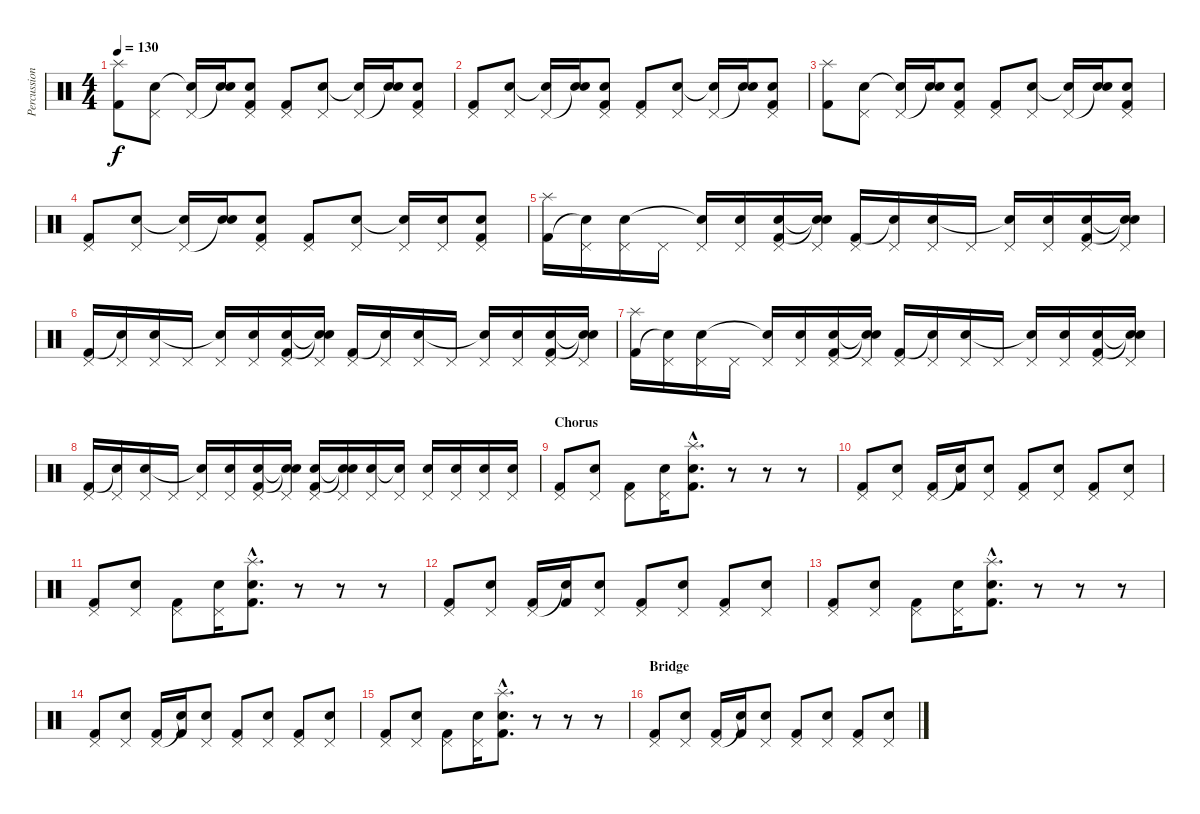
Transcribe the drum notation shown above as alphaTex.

\track ("Percussion" "Percussion") {instrument percussion}
\staff {score}
\articulation defaults
\ts (4 4)
\tempo 130
\clef neutral
\ks c
("Splash (hit)" "Kick (hit) 2").8{dy f} ("Pedal Hi-Hat (hit)" "Electric Snare (hit)").8 ("Pedal Hi-Hat (hit)" "Snare (hit)"{t}).16 ("Snare (hit)"{t} "Electric Snare (hit)").16 ("Pedal Hi-Hat (hit)" "Electric Snare (hit)" "Kick (hit) 2").8 ("Pedal Hi-Hat (hit)" "Kick (hit) 2").8 ("Pedal Hi-Hat (hit)" "Electric Snare (hit)").8 ("Pedal Hi-Hat (hit)" "Snare (hit)"{t}).16 ("Snare (hit)"{t} "Electric Snare (hit)").16 ("Pedal Hi-Hat (hit)" "Electric Snare (hit)" "Kick (hit) 2").8 |
("Pedal Hi-Hat (hit)" "Kick (hit) 2").8 ("Pedal Hi-Hat (hit)" "Electric Snare (hit)").8 ("Pedal Hi-Hat (hit)" "Snare (hit)"{t}).16 ("Snare (hit)"{t} "Electric Snare (hit)").16 ("Pedal Hi-Hat (hit)" "Electric Snare (hit)" "Kick (hit) 2").8 ("Pedal Hi-Hat (hit)" "Kick (hit) 2").8 ("Pedal Hi-Hat (hit)" "Electric Snare (hit)").8 ("Pedal Hi-Hat (hit)" "Snare (hit)"{t}).16 ("Snare (hit)"{t} "Electric Snare (hit)").16 ("Pedal Hi-Hat (hit)" "Electric Snare (hit)" "Kick (hit) 2").8 |
("Splash (hit)" "Kick (hit) 2").8 ("Pedal Hi-Hat (hit)" "Electric Snare (hit)").8 ("Pedal Hi-Hat (hit)" "Snare (hit)"{t}).16 ("Snare (hit)"{t} "Electric Snare (hit)").16 ("Pedal Hi-Hat (hit)" "Electric Snare (hit)" "Kick (hit) 2").8 ("Pedal Hi-Hat (hit)" "Kick (hit) 2").8 ("Pedal Hi-Hat (hit)" "Electric Snare (hit)").8 ("Pedal Hi-Hat (hit)" "Snare (hit)"{t}).16 ("Snare (hit)"{t} "Electric Snare (hit)").16 ("Pedal Hi-Hat (hit)" "Electric Snare (hit)" "Kick (hit) 2").8 |
("Pedal Hi-Hat (hit)" "Kick (hit) 2").8 ("Pedal Hi-Hat (hit)" "Electric Snare (hit)").8 ("Pedal Hi-Hat (hit)" "Snare (hit)"{t}).16 ("Snare (hit)"{t} "Electric Snare (hit)").16 ("Pedal Hi-Hat (hit)" "Electric Snare (hit)" "Kick (hit) 2").8 ("Pedal Hi-Hat (hit)" "Kick (hit) 2").8 ("Pedal Hi-Hat (hit)" "Electric Snare (hit)").8 ("Pedal Hi-Hat (hit)" "Snare (hit)"{t}).16 ("Pedal Hi-Hat (hit)" "Electric Snare (hit)").16 ("Pedal Hi-Hat (hit)" "Electric Snare (hit)" "Kick (hit) 2").8 |
("Splash (hit)" "Kick (hit) 2").16 ("Pedal Hi-Hat (hit)" "Snare (hit)"{t}).16 ("Pedal Hi-Hat (hit)" "Electric Snare (hit)").16 "Pedal Hi-Hat (hit)".16 ("Pedal Hi-Hat (hit)" "Snare (hit)"{t}).16 ("Pedal Hi-Hat (hit)" "Electric Snare (hit)").16 ("Pedal Hi-Hat (hit)" "Electric Snare (hit)" "Kick (hit) 2").16 ("Pedal Hi-Hat (hit)" "Snare (hit)"{t} "Snare (hit)"{t}).16 ("Pedal Hi-Hat (hit)" "Kick (hit) 2").16 ("Pedal Hi-Hat (hit)" "Snare (hit)"{t}).16 ("Pedal Hi-Hat (hit)" "Electric Snare (hit)").16 "Pedal Hi-Hat (hit)".16 ("Pedal Hi-Hat (hit)" "Snare (hit)"{t}).16 ("Pedal Hi-Hat (hit)" "Electric Snare (hit)").16 ("Pedal Hi-Hat (hit)" "Electric Snare (hit)" "Kick (hit) 2").16 ("Pedal Hi-Hat (hit)" "Snare (hit)"{t} "Snare (hit)"{t}).16 |
("Pedal Hi-Hat (hit)" "Kick (hit) 2").16 ("Pedal Hi-Hat (hit)" "Snare (hit)"{t}).16 ("Pedal Hi-Hat (hit)" "Electric Snare (hit)").16 "Pedal Hi-Hat (hit)".16 ("Pedal Hi-Hat (hit)" "Snare (hit)"{t}).16 ("Pedal Hi-Hat (hit)" "Electric Snare (hit)").16 ("Pedal Hi-Hat (hit)" "Electric Snare (hit)" "Kick (hit) 2").16 ("Pedal Hi-Hat (hit)" "Snare (hit)"{t} "Snare (hit)"{t}).16 ("Pedal Hi-Hat (hit)" "Kick (hit) 2").16 ("Pedal Hi-Hat (hit)" "Snare (hit)"{t}).16 ("Pedal Hi-Hat (hit)" "Electric Snare (hit)").16 "Pedal Hi-Hat (hit)".16 ("Pedal Hi-Hat (hit)" "Snare (hit)"{t}).16 ("Pedal Hi-Hat (hit)" "Electric Snare (hit)").16 ("Pedal Hi-Hat (hit)" "Electric Snare (hit)" "Kick (hit) 2").16 ("Pedal Hi-Hat (hit)" "Snare (hit)"{t} "Snare (hit)"{t}).16 |
("Splash (hit)" "Kick (hit) 2").16 ("Pedal Hi-Hat (hit)" "Snare (hit)"{t}).16 ("Pedal Hi-Hat (hit)" "Electric Snare (hit)").16 "Pedal Hi-Hat (hit)".16 ("Pedal Hi-Hat (hit)" "Snare (hit)"{t}).16 ("Pedal Hi-Hat (hit)" "Electric Snare (hit)").16 ("Pedal Hi-Hat (hit)" "Electric Snare (hit)" "Kick (hit) 2").16 ("Pedal Hi-Hat (hit)" "Snare (hit)"{t} "Snare (hit)"{t}).16 ("Pedal Hi-Hat (hit)" "Kick (hit) 2").16 ("Pedal Hi-Hat (hit)" "Snare (hit)"{t}).16 ("Pedal Hi-Hat (hit)" "Electric Snare (hit)").16 "Pedal Hi-Hat (hit)".16 ("Pedal Hi-Hat (hit)" "Snare (hit)"{t}).16 ("Pedal Hi-Hat (hit)" "Electric Snare (hit)").16 ("Pedal Hi-Hat (hit)" "Electric Snare (hit)" "Kick (hit) 2").16 ("Pedal Hi-Hat (hit)" "Snare (hit)"{t} "Snare (hit)"{t}).16 |
("Pedal Hi-Hat (hit)" "Kick (hit) 2").16 ("Pedal Hi-Hat (hit)" "Snare (hit)"{t}).16 ("Pedal Hi-Hat (hit)" "Electric Snare (hit)").16 "Pedal Hi-Hat (hit)".16 ("Pedal Hi-Hat (hit)" "Snare (hit)"{t}).16 ("Pedal Hi-Hat (hit)" "Electric Snare (hit)").16 ("Pedal Hi-Hat (hit)" "Electric Snare (hit)" "Kick (hit) 2").16 ("Pedal Hi-Hat (hit)" "Snare (hit)"{t} "Snare (hit)"{t}).16 ("Pedal Hi-Hat (hit)" "Electric Snare (hit)" "Kick (hit) 2").16 ("Pedal Hi-Hat (hit)" "Snare (hit)"{t} "Snare (hit)"{t}).16 ("Pedal Hi-Hat (hit)" "Electric Snare (hit)").16 ("Pedal Hi-Hat (hit)" "Snare (hit)"{t}).16 ("Pedal Hi-Hat (hit)" "Electric Snare (hit)").16 ("Pedal Hi-Hat (hit)" "Electric Snare (hit)").16 ("Pedal Hi-Hat (hit)" "Electric Snare (hit)").16 ("Pedal Hi-Hat (hit)" "Electric Snare (hit)").16 |
\section ("" "Chorus")
("Pedal Hi-Hat (hit)" "Kick (hit) 2").8 ("Pedal Hi-Hat (hit)" "Electric Snare (hit)").8 ("Pedal Hi-Hat (hit)" "Kick (hit) 2").8 ("Pedal Hi-Hat (hit)" "Electric Snare (hit)").16 ("Splash (hit)"{hac} "Electric Snare (hit)"{hac} "Kick (hit) 2"{hac}).8{d} r.8 r.8 r.8 |
("Pedal Hi-Hat (hit)" "Kick (hit) 2").8 ("Pedal Hi-Hat (hit)" "Electric Snare (hit)").8 ("Pedal Hi-Hat (hit)" "Kick (hit) 2").16 ("Snare (hit)"{t} "Kick (hit) 2").16 ("Pedal Hi-Hat (hit)" "Electric Snare (hit)").8 ("Pedal Hi-Hat (hit)" "Kick (hit) 2").8 ("Pedal Hi-Hat (hit)" "Electric Snare (hit)").8 ("Pedal Hi-Hat (hit)" "Kick (hit) 2").8 ("Pedal Hi-Hat (hit)" "Electric Snare (hit)").8 |
("Pedal Hi-Hat (hit)" "Kick (hit) 2").8 ("Pedal Hi-Hat (hit)" "Electric Snare (hit)").8 ("Pedal Hi-Hat (hit)" "Kick (hit) 2").8 ("Pedal Hi-Hat (hit)" "Electric Snare (hit)").16 ("Splash (hit)"{hac} "Electric Snare (hit)"{hac} "Kick (hit) 2"{hac}).8{d} r.8 r.8 r.8 |
("Pedal Hi-Hat (hit)" "Kick (hit) 2").8 ("Pedal Hi-Hat (hit)" "Electric Snare (hit)").8 ("Pedal Hi-Hat (hit)" "Kick (hit) 2").16 ("Snare (hit)"{t} "Kick (hit) 2").16 ("Pedal Hi-Hat (hit)" "Electric Snare (hit)").8 ("Pedal Hi-Hat (hit)" "Kick (hit) 2").8 ("Pedal Hi-Hat (hit)" "Electric Snare (hit)").8 ("Pedal Hi-Hat (hit)" "Kick (hit) 2").8 ("Pedal Hi-Hat (hit)" "Electric Snare (hit)").8 |
("Pedal Hi-Hat (hit)" "Kick (hit) 2").8 ("Pedal Hi-Hat (hit)" "Electric Snare (hit)").8 ("Pedal Hi-Hat (hit)" "Kick (hit) 2").8 ("Pedal Hi-Hat (hit)" "Electric Snare (hit)").16 ("Splash (hit)"{hac} "Electric Snare (hit)"{hac} "Kick (hit) 2"{hac}).8{d} r.8 r.8 r.8 |
("Pedal Hi-Hat (hit)" "Kick (hit) 2").8 ("Pedal Hi-Hat (hit)" "Electric Snare (hit)").8 ("Pedal Hi-Hat (hit)" "Kick (hit) 2").16 ("Snare (hit)"{t} "Kick (hit) 2").16 ("Pedal Hi-Hat (hit)" "Electric Snare (hit)").8 ("Pedal Hi-Hat (hit)" "Kick (hit) 2").8 ("Pedal Hi-Hat (hit)" "Electric Snare (hit)").8 ("Pedal Hi-Hat (hit)" "Kick (hit) 2").8 ("Pedal Hi-Hat (hit)" "Electric Snare (hit)").8 |
("Pedal Hi-Hat (hit)" "Kick (hit) 2").8 ("Pedal Hi-Hat (hit)" "Electric Snare (hit)").8 ("Pedal Hi-Hat (hit)" "Kick (hit) 2").8 ("Pedal Hi-Hat (hit)" "Electric Snare (hit)").16 ("Splash (hit)"{hac} "Electric Snare (hit)"{hac} "Kick (hit) 2"{hac}).8{d} r.8 r.8 r.8 |
\section ("" "Bridge")
("Pedal Hi-Hat (hit)" "Kick (hit) 2").8 ("Pedal Hi-Hat (hit)" "Electric Snare (hit)").8 ("Pedal Hi-Hat (hit)" "Kick (hit) 2").16 ("Snare (hit)"{t} "Kick (hit) 2").16 ("Pedal Hi-Hat (hit)" "Electric Snare (hit)").8 ("Pedal Hi-Hat (hit)" "Kick (hit) 2").8 ("Pedal Hi-Hat (hit)" "Electric Snare (hit)").8 ("Pedal Hi-Hat (hit)" "Kick (hit) 2").8 ("Pedal Hi-Hat (hit)" "Electric Snare (hit)").8
